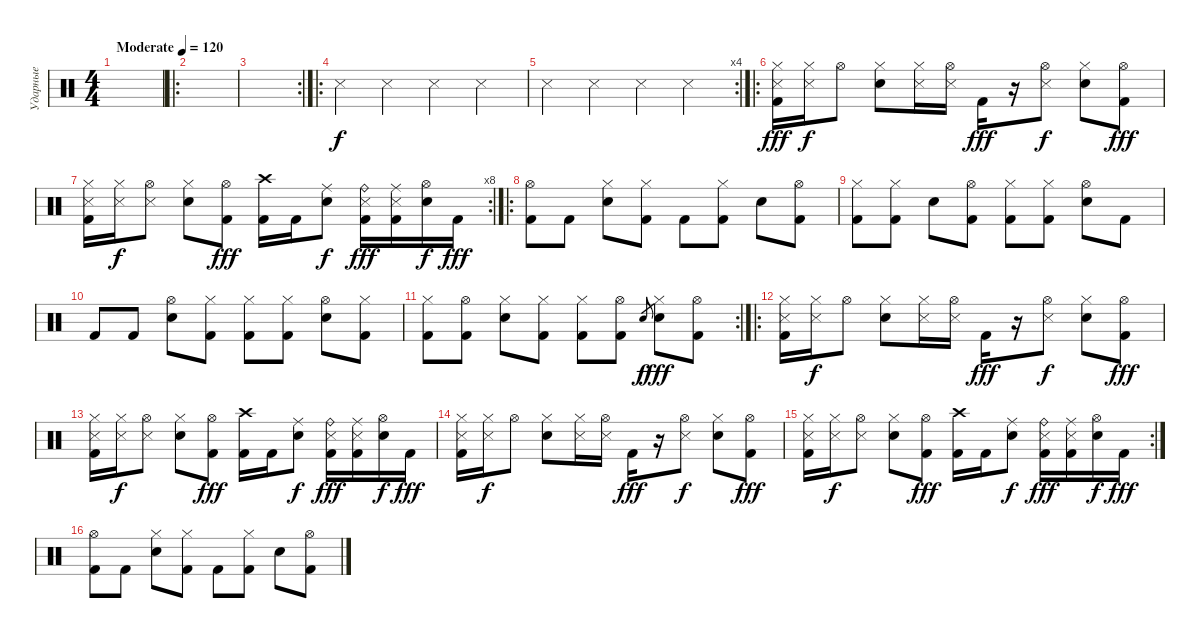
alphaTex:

\track ("Ударные" "Ударные") {instrument percussion}
\staff {score}
\articulation defaults
\ts (4 4)
\tempo (120 "Moderate")
\clef neutral
\ks c
|
\ro
|
\rc 2
|
\ro "Snare (side stick) 3".4 "Snare (side stick) 3".4 "Snare (side stick) 3".4 "Snare (side stick) 3".4
|
\rc 4 "Snare (side stick) 3".4 "Snare (side stick) 3".4 "Snare (side stick) 3".4 "Snare (side stick) 3".4
|
\ro
("Hi-Hat (closed)" "Snare (side stick) 3" "Kick (hit) 2").16{dy fff} ("Hi-Hat (closed)" "Snare (side stick) 3").16{dy f} "Hi-Hat (open)".8 ("Hi-Hat (closed)" "Electric Snare (hit)").8 ("Hi-Hat (closed)" "Snare (side stick) 3").16 ("Hi-Hat (open)" "Snare (side stick) 3").16 "Kick (hit) 2".16{dy fff} r.16 ("Hi-Hat (open)" "Snare (side stick) 3").8{dy f} ("Hi-Hat (closed)" "Electric Snare (hit)").8 ("Hi-Hat (open)" "Kick (hit) 2").8{dy fff} |
\rc 8
("Hi-Hat (closed)" "Snare (side stick) 3" "Kick (hit) 2").16 ("Hi-Hat (closed)" "Snare (side stick) 3").16{dy f} ("Hi-Hat (open)" "Snare (side stick) 3").8 ("Hi-Hat (closed)" "Electric Snare (hit)").8 ("Hi-Hat (open)" "Kick (hit) 2").8{dy fff} ("Crash high (hit)" "Kick (hit) 2").16 "Kick (hit) 2".16 ("Ride (middle)" "Electric Snare (hit)").8{dy f} ("Ride (bell)" "Snare (side stick) 3" "Kick (hit) 2").16{dy fff} ("Ride (middle)" "Snare (side stick) 3" "Kick (hit) 2").16 ("Hi-Hat (open)" "Electric Snare (hit)").16{dy f} "Kick (hit) 2".16{dy fff} |
\ro
("Hi-Hat (open)" "Kick (hit) 2").8 "Kick (hit) 2".8 ("Hi-Hat (closed)" "Electric Snare (hit)").8 ("Hi-Hat (closed)" "Kick (hit) 2").8 "Kick (hit) 2".8 ("Hi-Hat (closed)" "Kick (hit) 2").8 "Electric Snare (hit)".8 ("Hi-Hat (open)" "Kick (hit) 2").8 |
("Hi-Hat (closed)" "Kick (hit) 2").8 ("Hi-Hat (closed)" "Kick (hit) 2").8 "Electric Snare (hit)".8 ("Hi-Hat (open)" "Kick (hit) 2").8 ("Hi-Hat (closed)" "Kick (hit) 2").8 ("Hi-Hat (closed)" "Kick (hit) 2").8 ("Hi-Hat (open)" "Electric Snare (hit)").8 "Kick (hit) 2".8 |
"Kick (hit) 2".8 "Kick (hit) 2".8 ("Hi-Hat (open)" "Electric Snare (hit)").8 ("Hi-Hat (closed)" "Kick (hit) 2").8 ("Hi-Hat (closed)" "Kick (hit) 2").8 ("Hi-Hat (closed)" "Kick (hit) 2").8 ("Hi-Hat (open)" "Electric Snare (hit)").8 ("Hi-Hat (closed)" "Kick (hit) 2").8 |
\rc 2
("Hi-Hat (closed)" "Kick (hit) 2").8 ("Hi-Hat (open)" "Kick (hit) 2").8 ("Hi-Hat (closed)" "Electric Snare (hit)").8 ("Hi-Hat (closed)" "Kick (hit) 2").8 ("Hi-Hat (closed)" "Kick (hit) 2").8 ("Hi-Hat (open)" "Kick (hit) 2").8 "Electric Snare (hit)".8{gr dy f} ("Hi-Hat (closed)" "Electric Snare (hit)").8{dy fff} ("Hi-Hat (open)" "Kick (hit) 2").8 |
\ro
("Hi-Hat (closed)" "Snare (side stick) 3" "Kick (hit) 2").16 ("Hi-Hat (closed)" "Snare (side stick) 3").16{dy f} "Hi-Hat (open)".8 ("Hi-Hat (closed)" "Electric Snare (hit)").8 ("Hi-Hat (closed)" "Snare (side stick) 3").16 ("Hi-Hat (open)" "Snare (side stick) 3").16 "Kick (hit) 2".16{dy fff} r.16 ("Hi-Hat (open)" "Snare (side stick) 3").8{dy f} ("Hi-Hat (closed)" "Electric Snare (hit)").8 ("Hi-Hat (open)" "Kick (hit) 2").8{dy fff} |
("Hi-Hat (closed)" "Snare (side stick) 3" "Kick (hit) 2").16 ("Hi-Hat (closed)" "Snare (side stick) 3").16{dy f} ("Hi-Hat (open)" "Snare (side stick) 3").8 ("Hi-Hat (closed)" "Electric Snare (hit)").8 ("Hi-Hat (open)" "Kick (hit) 2").8{dy fff} ("Crash high (hit)" "Kick (hit) 2").16 "Kick (hit) 2".16 ("Ride (middle)" "Electric Snare (hit)").8{dy f} ("Ride (bell)" "Snare (side stick) 3" "Kick (hit) 2").16{dy fff} ("Ride (middle)" "Snare (side stick) 3" "Kick (hit) 2").16 ("Hi-Hat (open)" "Electric Snare (hit)").16{dy f} "Kick (hit) 2".16{dy fff} |
("Hi-Hat (closed)" "Snare (side stick) 3" "Kick (hit) 2").16 ("Hi-Hat (closed)" "Snare (side stick) 3").16{dy f} "Hi-Hat (open)".8 ("Hi-Hat (closed)" "Electric Snare (hit)").8 ("Hi-Hat (closed)" "Snare (side stick) 3").16 ("Hi-Hat (open)" "Snare (side stick) 3").16 "Kick (hit) 2".16{dy fff} r.16 ("Hi-Hat (open)" "Snare (side stick) 3").8{dy f} ("Hi-Hat (closed)" "Electric Snare (hit)").8 ("Hi-Hat (open)" "Kick (hit) 2").8{dy fff} |
\rc 2
("Hi-Hat (closed)" "Snare (side stick) 3" "Kick (hit) 2").16 ("Hi-Hat (closed)" "Snare (side stick) 3").16{dy f} ("Hi-Hat (open)" "Snare (side stick) 3").8 ("Hi-Hat (closed)" "Electric Snare (hit)").8 ("Hi-Hat (open)" "Kick (hit) 2").8{dy fff} ("Crash high (hit)" "Kick (hit) 2").16 "Kick (hit) 2".16 ("Ride (middle)" "Electric Snare (hit)").8{dy f} ("Ride (bell)" "Snare (side stick) 3" "Kick (hit) 2").16{dy fff} ("Ride (middle)" "Snare (side stick) 3" "Kick (hit) 2").16 ("Hi-Hat (open)" "Electric Snare (hit)").16{dy f} "Kick (hit) 2".16{dy fff} |
("Hi-Hat (open)" "Kick (hit) 2").8 "Kick (hit) 2".8 ("Hi-Hat (closed)" "Electric Snare (hit)").8 ("Hi-Hat (closed)" "Kick (hit) 2").8 "Kick (hit) 2".8 ("Hi-Hat (closed)" "Kick (hit) 2").8 "Electric Snare (hit)".8 ("Hi-Hat (open)" "Kick (hit) 2").8
